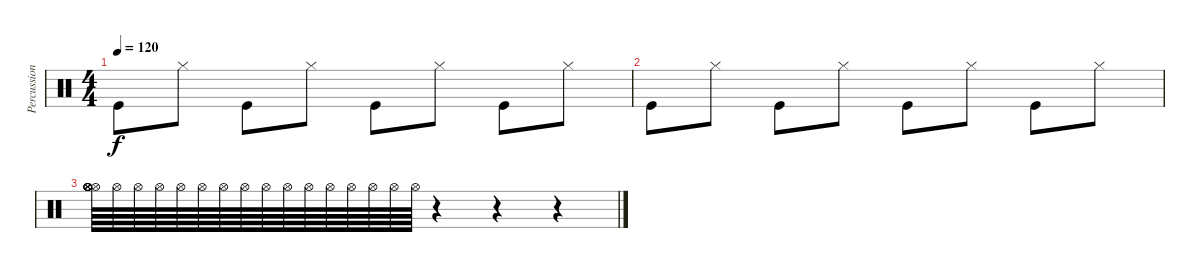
\track ("Percussion" "Percussion") {instrument percussion}
\staff {score}
\articulation defaults
\ts (4 4)
\tempo 120
\clef neutral
\ks c "Kick (hit)".8{dy f} "Hi-Hat (closed)".8 "Kick (hit)".8 "Hi-Hat (closed)".8 "Kick (hit)".8 "Hi-Hat (closed)".8 "Kick (hit)".8 "Hi-Hat (closed)".8
|
"Kick (hit)".8 "Hi-Hat (closed)".8 "Kick (hit)".8 "Hi-Hat (closed)".8 "Kick (hit)".8 "Hi-Hat (closed)".8 "Kick (hit)".8 "Hi-Hat (closed)".8 |
("Hi-Hat (open)" "Hi-Hat (open)" "Hi-Hat (open)" "Hi-Hat (open)" "Hi-Hat (open)" "Hi-Hat (open)").64 "Hi-Hat (open)".64 "Hi-Hat (open)".64 "Hi-Hat (open)".64 "Hi-Hat (open)".64 "Hi-Hat (open)".64 "Hi-Hat (open)".64 "Hi-Hat (open)".64 "Hi-Hat (open)".64 "Hi-Hat (open)".64 "Hi-Hat (open)".64 "Hi-Hat (open)".64 "Hi-Hat (open)".64 "Hi-Hat (open)".64 "Hi-Hat (open)".64 "Hi-Hat (open)".64 r.4 r.4 r.4
